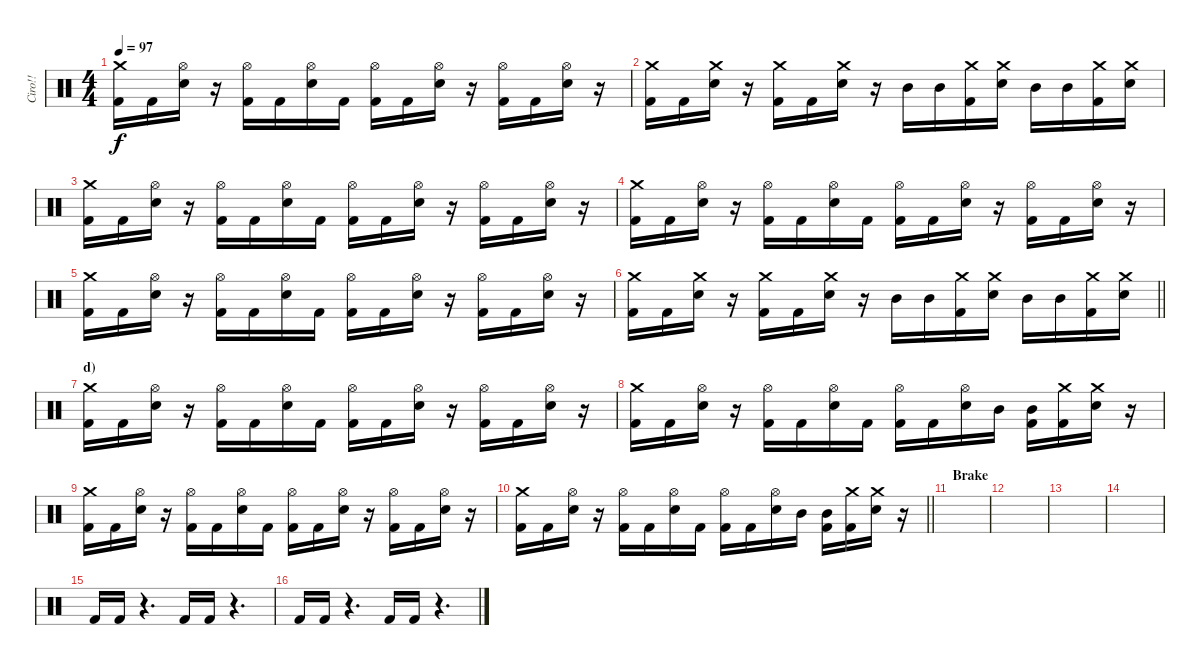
\track ("Ciro!!" "Ciro!!") {instrument percussion}
\staff {score}
\articulation defaults
\ts (4 4)
\tempo 97
\clef neutral
\ks c
("Crash medium (hit)" "Kick (hit) 2").16{dy f} "Kick (hit) 2".16 ("Hi-Hat (open)" "Electric Snare (hit)").16 r.16 ("Hi-Hat (open)" "Kick (hit) 2").16 "Kick (hit) 2".16 ("Hi-Hat (open)" "Electric Snare (hit)").16 "Kick (hit) 2".16 ("Hi-Hat (open)" "Kick (hit) 2").16 "Kick (hit) 2".16 ("Hi-Hat (open)" "Electric Snare (hit)").16 r.16 ("Hi-Hat (open)" "Kick (hit) 2").16 "Kick (hit) 2".16 ("Hi-Hat (open)" "Electric Snare (hit)").16 r.16 |
("Crash medium (hit)" "Kick (hit) 2").16 "Kick (hit) 2".16 ("Crash medium (hit)" "Electric Snare (hit)").16 r.16 ("Crash medium (hit)" "Kick (hit) 2").16 "Kick (hit) 2".16 ("Crash medium (hit)" "Electric Snare (hit)").16 r.16 "Mid Tom (hit)".16 "Mid Tom (hit)".16 ("Crash medium (hit)" "Kick (hit) 2").16 ("Crash medium (hit)" "Electric Snare (hit)").16 "Mid Tom (hit)".16 "Mid Tom (hit)".16 ("Crash medium (hit)" "Kick (hit) 2").16 ("Crash medium (hit)" "Electric Snare (hit)").16 |
("Crash medium (hit)" "Kick (hit) 2").16 "Kick (hit) 2".16 ("Hi-Hat (open)" "Electric Snare (hit)").16 r.16 ("Hi-Hat (open)" "Kick (hit) 2").16 "Kick (hit) 2".16 ("Hi-Hat (open)" "Electric Snare (hit)").16 "Kick (hit) 2".16 ("Hi-Hat (open)" "Kick (hit) 2").16 "Kick (hit) 2".16 ("Hi-Hat (open)" "Electric Snare (hit)").16 r.16 ("Hi-Hat (open)" "Kick (hit) 2").16 "Kick (hit) 2".16 ("Hi-Hat (open)" "Electric Snare (hit)").16 r.16 |
("Crash medium (hit)" "Kick (hit) 2").16 "Kick (hit) 2".16 ("Hi-Hat (open)" "Electric Snare (hit)").16 r.16 ("Hi-Hat (open)" "Kick (hit) 2").16 "Kick (hit) 2".16 ("Hi-Hat (open)" "Electric Snare (hit)").16 "Kick (hit) 2".16 ("Hi-Hat (open)" "Kick (hit) 2").16 "Kick (hit) 2".16 ("Hi-Hat (open)" "Electric Snare (hit)").16 r.16 ("Hi-Hat (open)" "Kick (hit) 2").16 "Kick (hit) 2".16 ("Hi-Hat (open)" "Electric Snare (hit)").16 r.16 |
("Crash medium (hit)" "Kick (hit) 2").16 "Kick (hit) 2".16 ("Hi-Hat (open)" "Electric Snare (hit)").16 r.16 ("Hi-Hat (open)" "Kick (hit) 2").16 "Kick (hit) 2".16 ("Hi-Hat (open)" "Electric Snare (hit)").16 "Kick (hit) 2".16 ("Hi-Hat (open)" "Kick (hit) 2").16 "Kick (hit) 2".16 ("Hi-Hat (open)" "Electric Snare (hit)").16 r.16 ("Hi-Hat (open)" "Kick (hit) 2").16 "Kick (hit) 2".16 ("Hi-Hat (open)" "Electric Snare (hit)").16 r.16 |
\barLineRight lightlight
("Crash medium (hit)" "Kick (hit) 2").16 "Kick (hit) 2".16 ("Crash medium (hit)" "Electric Snare (hit)").16 r.16 ("Crash medium (hit)" "Kick (hit) 2").16 "Kick (hit) 2".16 ("Crash medium (hit)" "Electric Snare (hit)").16 r.16 "Mid Tom (hit)".16 "Mid Tom (hit)".16 ("Crash medium (hit)" "Kick (hit) 2").16 ("Crash medium (hit)" "Electric Snare (hit)").16 "Mid Tom (hit)".16 "Mid Tom (hit)".16 ("Crash medium (hit)" "Kick (hit) 2").16 ("Crash medium (hit)" "Electric Snare (hit)").16 |
\section ("" "d)")
("Crash medium (hit)" "Kick (hit) 2").16 "Kick (hit) 2".16 ("Hi-Hat (open)" "Electric Snare (hit)").16 r.16 ("Hi-Hat (open)" "Kick (hit) 2").16 "Kick (hit) 2".16 ("Hi-Hat (open)" "Electric Snare (hit)").16 "Kick (hit) 2".16 ("Hi-Hat (open)" "Kick (hit) 2").16 "Kick (hit) 2".16 ("Hi-Hat (open)" "Electric Snare (hit)").16 r.16 ("Hi-Hat (open)" "Kick (hit) 2").16 "Kick (hit) 2".16 ("Hi-Hat (open)" "Electric Snare (hit)").16 r.16 |
("Crash medium (hit)" "Kick (hit) 2").16 "Kick (hit) 2".16 ("Hi-Hat (open)" "Electric Snare (hit)").16 r.16 ("Hi-Hat (open)" "Kick (hit) 2").16 "Kick (hit) 2".16 ("Hi-Hat (open)" "Electric Snare (hit)").16 "Kick (hit) 2".16 ("Hi-Hat (open)" "Kick (hit) 2").16 "Kick (hit) 2".16 ("Hi-Hat (open)" "Electric Snare (hit)").16 "Mid Tom (hit)".16 ("Mid Tom (hit)" "Kick (hit) 2").16 ("Crash medium (hit)" "Kick (hit) 2").16 ("Crash medium (hit)" "Electric Snare (hit)").16 r.16 |
("Crash medium (hit)" "Kick (hit) 2").16 "Kick (hit) 2".16 ("Hi-Hat (open)" "Electric Snare (hit)").16 r.16 ("Hi-Hat (open)" "Kick (hit) 2").16 "Kick (hit) 2".16 ("Hi-Hat (open)" "Electric Snare (hit)").16 "Kick (hit) 2".16 ("Hi-Hat (open)" "Kick (hit) 2").16 "Kick (hit) 2".16 ("Hi-Hat (open)" "Electric Snare (hit)").16 r.16 ("Hi-Hat (open)" "Kick (hit) 2").16 "Kick (hit) 2".16 ("Hi-Hat (open)" "Electric Snare (hit)").16 r.16 |
\barLineRight lightlight
("Crash medium (hit)" "Kick (hit) 2").16 "Kick (hit) 2".16 ("Hi-Hat (open)" "Electric Snare (hit)").16 r.16 ("Hi-Hat (open)" "Kick (hit) 2").16 "Kick (hit) 2".16 ("Hi-Hat (open)" "Electric Snare (hit)").16 "Kick (hit) 2".16 ("Hi-Hat (open)" "Kick (hit) 2").16 "Kick (hit) 2".16 ("Hi-Hat (open)" "Electric Snare (hit)").16 "Mid Tom (hit)".16 ("Mid Tom (hit)" "Kick (hit) 2").16 ("Crash medium (hit)" "Kick (hit) 2").16 ("Crash medium (hit)" "Electric Snare (hit)").16 r.16 |
\section ("" "Brake")
|
|
|
|
"Kick (hit) 2".16 "Kick (hit) 2".16 r.4{d} "Kick (hit) 2".16 "Kick (hit) 2".16 r.4{d} |
"Kick (hit) 2".16 "Kick (hit) 2".16 r.4{d} "Kick (hit) 2".16 "Kick (hit) 2".16 r.4{d}
